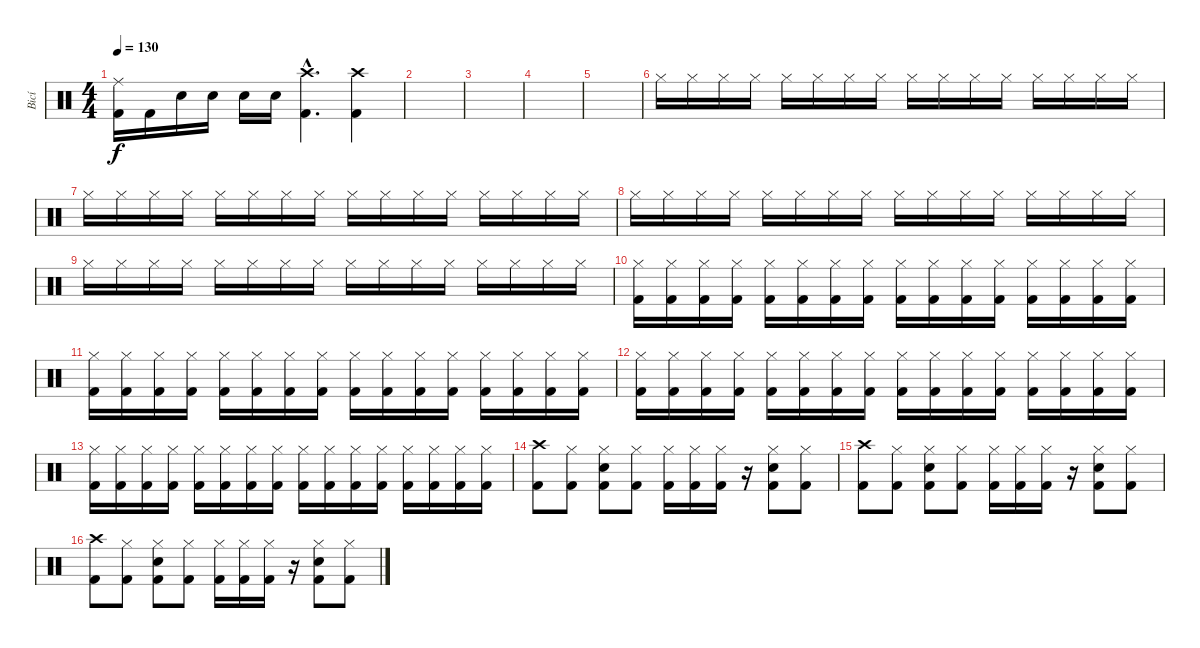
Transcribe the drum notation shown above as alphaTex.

\track ("Bicí" "Bicí") {instrument percussion}
\staff {score}
\articulation defaults
\ts (4 4)
\tempo 130
\clef neutral
\ks c
("Ride (middle)" "Kick (hit) 2").16{dy f} "Kick (hit) 2".16 "Snare (hit) 2".16 "Snare (hit) 2".16 "Snare (hit) 2".16 "Snare (hit) 2".16 ("Crash high (hit)"{hac} "Kick (hit) 2"{hac}).4{d} ("Crash high (hit)" "Kick (hit) 2").4 |
|
|
|
|
"Hi-Hat (closed)".16 "Hi-Hat (closed)".16 "Hi-Hat (closed)".16 "Hi-Hat (closed)".16 "Hi-Hat (closed)".16 "Hi-Hat (closed)".16 "Hi-Hat (closed)".16 "Hi-Hat (closed)".16 "Hi-Hat (closed)".16 "Hi-Hat (closed)".16 "Hi-Hat (closed)".16 "Hi-Hat (closed)".16 "Hi-Hat (closed)".16 "Hi-Hat (closed)".16 "Hi-Hat (closed)".16 "Hi-Hat (closed)".16 |
"Hi-Hat (closed)".16 "Hi-Hat (closed)".16 "Hi-Hat (closed)".16 "Hi-Hat (closed)".16 "Hi-Hat (closed)".16 "Hi-Hat (closed)".16 "Hi-Hat (closed)".16 "Hi-Hat (closed)".16 "Hi-Hat (closed)".16 "Hi-Hat (closed)".16 "Hi-Hat (closed)".16 "Hi-Hat (closed)".16 "Hi-Hat (closed)".16 "Hi-Hat (closed)".16 "Hi-Hat (closed)".16 "Hi-Hat (closed)".16 |
"Hi-Hat (closed)".16 "Hi-Hat (closed)".16 "Hi-Hat (closed)".16 "Hi-Hat (closed)".16 "Hi-Hat (closed)".16 "Hi-Hat (closed)".16 "Hi-Hat (closed)".16 "Hi-Hat (closed)".16 "Hi-Hat (closed)".16 "Hi-Hat (closed)".16 "Hi-Hat (closed)".16 "Hi-Hat (closed)".16 "Hi-Hat (closed)".16 "Hi-Hat (closed)".16 "Hi-Hat (closed)".16 "Hi-Hat (closed)".16 |
"Hi-Hat (closed)".16 "Hi-Hat (closed)".16 "Hi-Hat (closed)".16 "Hi-Hat (closed)".16 "Hi-Hat (closed)".16 "Hi-Hat (closed)".16 "Hi-Hat (closed)".16 "Hi-Hat (closed)".16 "Hi-Hat (closed)".16 "Hi-Hat (closed)".16 "Hi-Hat (closed)".16 "Hi-Hat (closed)".16 "Hi-Hat (closed)".16 "Hi-Hat (closed)".16 "Hi-Hat (closed)".16 "Hi-Hat (closed)".16 |
("Hi-Hat (closed)" "Kick (hit) 2").16 ("Hi-Hat (closed)" "Kick (hit) 2").16 ("Hi-Hat (closed)" "Kick (hit) 2").16 ("Hi-Hat (closed)" "Kick (hit) 2").16 ("Hi-Hat (closed)" "Kick (hit) 2").16 ("Hi-Hat (closed)" "Kick (hit) 2").16 ("Hi-Hat (closed)" "Kick (hit) 2").16 ("Hi-Hat (closed)" "Kick (hit) 2").16 ("Hi-Hat (closed)" "Kick (hit) 2").16 ("Hi-Hat (closed)" "Kick (hit) 2").16 ("Hi-Hat (closed)" "Kick (hit) 2").16 ("Hi-Hat (closed)" "Kick (hit) 2").16 ("Hi-Hat (closed)" "Kick (hit) 2").16 ("Hi-Hat (closed)" "Kick (hit) 2").16 ("Hi-Hat (closed)" "Kick (hit) 2").16 ("Hi-Hat (closed)" "Kick (hit) 2").16 |
("Hi-Hat (closed)" "Kick (hit) 2").16 ("Hi-Hat (closed)" "Kick (hit) 2").16 ("Hi-Hat (closed)" "Kick (hit) 2").16 ("Hi-Hat (closed)" "Kick (hit) 2").16 ("Hi-Hat (closed)" "Kick (hit) 2").16 ("Hi-Hat (closed)" "Kick (hit) 2").16 ("Hi-Hat (closed)" "Kick (hit) 2").16 ("Hi-Hat (closed)" "Kick (hit) 2").16 ("Hi-Hat (closed)" "Kick (hit) 2").16 ("Hi-Hat (closed)" "Kick (hit) 2").16 ("Hi-Hat (closed)" "Kick (hit) 2").16 ("Hi-Hat (closed)" "Kick (hit) 2").16 ("Hi-Hat (closed)" "Kick (hit) 2").16 ("Hi-Hat (closed)" "Kick (hit) 2").16 ("Hi-Hat (closed)" "Kick (hit) 2").16 ("Hi-Hat (closed)" "Kick (hit) 2").16 |
("Hi-Hat (closed)" "Kick (hit) 2").16 ("Hi-Hat (closed)" "Kick (hit) 2").16 ("Hi-Hat (closed)" "Kick (hit) 2").16 ("Hi-Hat (closed)" "Kick (hit) 2").16 ("Hi-Hat (closed)" "Kick (hit) 2").16 ("Hi-Hat (closed)" "Kick (hit) 2").16 ("Hi-Hat (closed)" "Kick (hit) 2").16 ("Hi-Hat (closed)" "Kick (hit) 2").16 ("Hi-Hat (closed)" "Kick (hit) 2").16 ("Hi-Hat (closed)" "Kick (hit) 2").16 ("Hi-Hat (closed)" "Kick (hit) 2").16 ("Hi-Hat (closed)" "Kick (hit) 2").16 ("Hi-Hat (closed)" "Kick (hit) 2").16 ("Hi-Hat (closed)" "Kick (hit) 2").16 ("Hi-Hat (closed)" "Kick (hit) 2").16 ("Hi-Hat (closed)" "Kick (hit) 2").16 |
("Hi-Hat (closed)" "Kick (hit) 2").16 ("Hi-Hat (closed)" "Kick (hit) 2").16 ("Hi-Hat (closed)" "Kick (hit) 2").16 ("Hi-Hat (closed)" "Kick (hit) 2").16 ("Hi-Hat (closed)" "Kick (hit) 2").16 ("Hi-Hat (closed)" "Kick (hit) 2").16 ("Hi-Hat (closed)" "Kick (hit) 2").16 ("Hi-Hat (closed)" "Kick (hit) 2").16 ("Hi-Hat (closed)" "Kick (hit) 2").16 ("Hi-Hat (closed)" "Kick (hit) 2").16 ("Hi-Hat (closed)" "Kick (hit) 2").16 ("Hi-Hat (closed)" "Kick (hit) 2").16 ("Hi-Hat (closed)" "Kick (hit) 2").16 ("Hi-Hat (closed)" "Kick (hit) 2").16 ("Hi-Hat (closed)" "Kick (hit) 2").16 ("Hi-Hat (closed)" "Kick (hit) 2").16 |
("Crash high (hit)" "Kick (hit) 2").8 ("Hi-Hat (closed)" "Kick (hit) 2").8 ("Hi-Hat (closed)" "Snare (hit) 2" "Kick (hit) 2").8 ("Hi-Hat (closed)" "Kick (hit) 2").8 ("Hi-Hat (closed)" "Kick (hit) 2").16 ("Hi-Hat (closed)" "Kick (hit) 2").16 ("Hi-Hat (closed)" "Kick (hit) 2").16 r.16 ("Hi-Hat (closed)" "Snare (hit) 2" "Kick (hit) 2").8 ("Hi-Hat (closed)" "Kick (hit) 2").8 |
("Crash high (hit)" "Kick (hit) 2").8 ("Hi-Hat (closed)" "Kick (hit) 2").8 ("Hi-Hat (closed)" "Snare (hit) 2" "Kick (hit) 2").8 ("Hi-Hat (closed)" "Kick (hit) 2").8 ("Hi-Hat (closed)" "Kick (hit) 2").16 ("Hi-Hat (closed)" "Kick (hit) 2").16 ("Hi-Hat (closed)" "Kick (hit) 2").16 r.16 ("Hi-Hat (closed)" "Snare (hit) 2" "Kick (hit) 2").8 ("Hi-Hat (closed)" "Kick (hit) 2").8 |
("Crash high (hit)" "Kick (hit) 2").8 ("Hi-Hat (closed)" "Kick (hit) 2").8 ("Hi-Hat (closed)" "Snare (hit) 2" "Kick (hit) 2").8 ("Hi-Hat (closed)" "Kick (hit) 2").8 ("Hi-Hat (closed)" "Kick (hit) 2").16 ("Hi-Hat (closed)" "Kick (hit) 2").16 ("Hi-Hat (closed)" "Kick (hit) 2").16 r.16 ("Hi-Hat (closed)" "Snare (hit) 2" "Kick (hit) 2").8 ("Hi-Hat (closed)" "Kick (hit) 2").8
